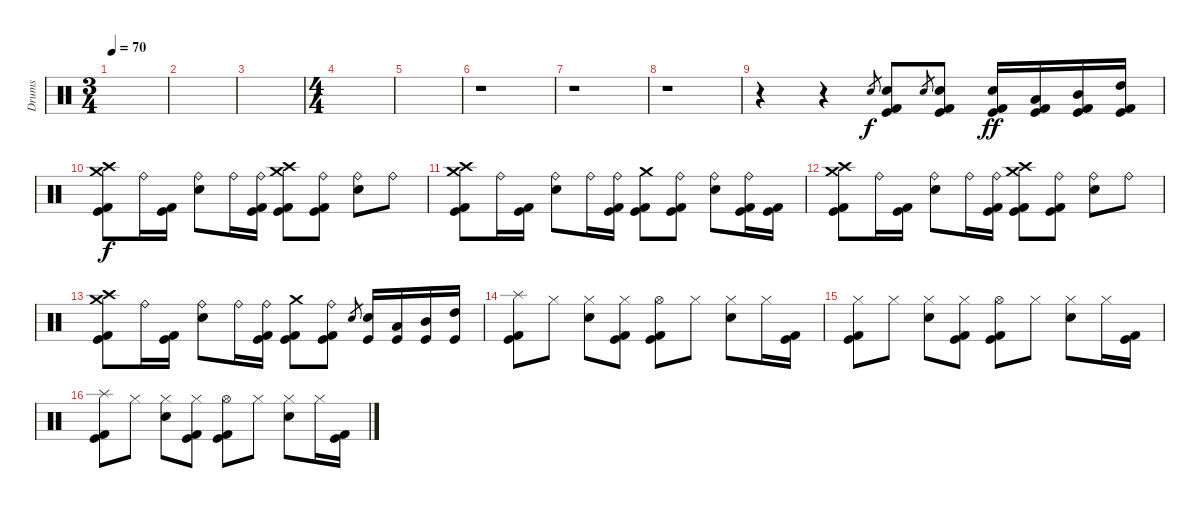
\track ("Drums" "Drums") {instrument percussion}
\staff {score}
\articulation defaults
\ts (3 4)
\tempo 70
\clef neutral
\ks c
|
|
|
\ts (4 4)
|
|
r.1 |
r.1 |
r.1 |
r.4 r.4 "Electric Snare (hit)".8{gr} ("Electric Snare (hit)" "Kick (hit) 2" "Kick (hit)").8 "Electric Snare (hit)".8{gr} ("Electric Snare (hit)" "Kick (hit) 2" "Kick (hit)").8 ("Electric Snare (hit)" "Kick (hit) 2" "Kick (hit)").16{dy ff} ("Low Tom (hit)" "Kick (hit) 2" "Kick (hit)").16 ("Mid Tom (hit)" "Kick (hit) 2" "Kick (hit)").16 ("High Tom (hit)" "Kick (hit) 2" "Kick (hit)").16 |
("Crash medium (hit)" "Crash high (hit)" "Kick (hit) 2" "Kick (hit)").8{dy f} "Ride (bell)".16 ("Kick (hit) 2" "Kick (hit)").16 ("Ride (bell)" "Electric Snare (hit)").8 "Ride (bell)".16 ("Ride (bell)" "Kick (hit) 2" "Kick (hit)").16 ("Crash medium (hit)" "Crash high (hit)" "Kick (hit) 2" "Kick (hit)").8 ("Ride (bell)" "Kick (hit) 2" "Kick (hit)").8 ("Ride (bell)" "Electric Snare (hit)").8 "Ride (bell)".8 |
("Crash medium (hit)" "Crash high (hit)" "Kick (hit) 2" "Kick (hit)").8 "Ride (bell)".16 ("Kick (hit) 2" "Kick (hit)").16 ("Ride (bell)" "Electric Snare (hit)").8 "Ride (bell)".16 ("Ride (bell)" "Kick (hit) 2" "Kick (hit)").16 ("Crash medium (hit)" "Kick (hit) 2" "Kick (hit)").8 ("Ride (bell)" "Kick (hit) 2" "Kick (hit)").8 ("Ride (bell)" "Electric Snare (hit)").8 ("Ride (bell)" "Kick (hit) 2" "Kick (hit)").16 ("Kick (hit) 2" "Kick (hit)").16 |
("Crash medium (hit)" "Crash high (hit)" "Kick (hit) 2" "Kick (hit)").8 "Ride (bell)".16 ("Kick (hit) 2" "Kick (hit)").16 ("Ride (bell)" "Electric Snare (hit)").8 "Ride (bell)".16 ("Ride (bell)" "Kick (hit) 2" "Kick (hit)").16 ("Crash medium (hit)" "Crash high (hit)" "Kick (hit) 2" "Kick (hit)").8 ("Ride (bell)" "Kick (hit) 2" "Kick (hit)").8 ("Ride (bell)" "Electric Snare (hit)").8 "Ride (bell)".8 |
("Crash medium (hit)" "Crash high (hit)" "Kick (hit) 2" "Kick (hit)").8 "Ride (bell)".16 ("Kick (hit) 2" "Kick (hit)").16 ("Ride (bell)" "Electric Snare (hit)").8 "Ride (bell)".16 ("Ride (bell)" "Kick (hit) 2" "Kick (hit)").16 ("Crash medium (hit)" "Kick (hit) 2" "Kick (hit)").8 ("Ride (bell)" "Kick (hit) 2" "Kick (hit)").8 "Electric Snare (hit)".8{gr} ("Electric Snare (hit)" "Kick (hit)").16 ("Low Tom (hit)" "Kick (hit)").16 ("Mid Tom (hit)" "Kick (hit)").16 ("High Tom (hit)" "Kick (hit)").16 |
("Splash (hit)" "Kick (hit) 2" "Kick (hit)").8 "Hi-Hat (closed)".8 ("Hi-Hat (closed)" "Electric Snare (hit)").8 ("Hi-Hat (closed)" "Kick (hit) 2" "Kick (hit)").8 ("Hi-Hat (open)" "Kick (hit) 2" "Kick (hit)").8 "Hi-Hat (closed)".8 ("Hi-Hat (closed)" "Electric Snare (hit)").8 "Hi-Hat (closed)".16 ("Kick (hit) 2" "Kick (hit)").16 |
("Hi-Hat (closed)" "Kick (hit) 2" "Kick (hit)").8 "Hi-Hat (closed)".8 ("Hi-Hat (closed)" "Electric Snare (hit)").8 ("Hi-Hat (closed)" "Kick (hit) 2" "Kick (hit)").8 ("Hi-Hat (open)" "Kick (hit) 2" "Kick (hit)").8 "Hi-Hat (closed)".8 ("Hi-Hat (closed)" "Electric Snare (hit)").8 "Hi-Hat (closed)".16 ("Kick (hit) 2" "Kick (hit)").16 |
("Splash (hit)" "Kick (hit) 2" "Kick (hit)").8 "Hi-Hat (closed)".8 ("Hi-Hat (closed)" "Electric Snare (hit)").8 ("Hi-Hat (closed)" "Kick (hit) 2" "Kick (hit)").8 ("Hi-Hat (open)" "Kick (hit) 2" "Kick (hit)").8 "Hi-Hat (closed)".8 ("Hi-Hat (closed)" "Electric Snare (hit)").8 "Hi-Hat (closed)".16 ("Kick (hit) 2" "Kick (hit)").16
